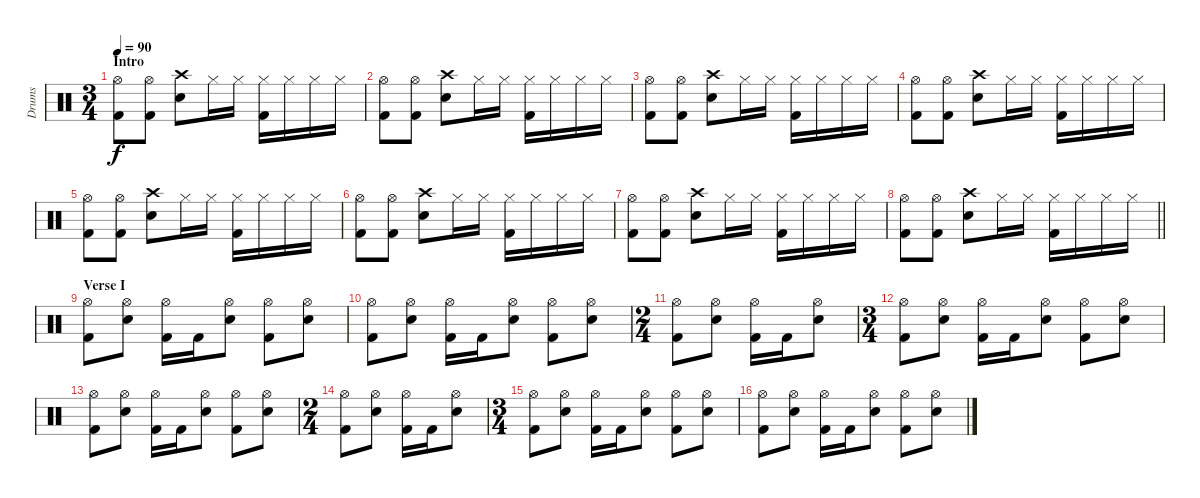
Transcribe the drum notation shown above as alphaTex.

\track ("Drums" "Drums") {instrument percussion}
\staff {score}
\articulation defaults
\ts (3 4)
\section ("" "Intro")
\tempo 90
\clef neutral
\ks c
("Hi-Hat (open)" "Kick (hit) 2").8{dy f} ("Hi-Hat (open)" "Kick (hit) 2").8 ("Crash high (hit)" "Snare (hit) 2").8 "Hi-Hat (closed)".16 "Hi-Hat (closed)".16 ("Hi-Hat (closed)" "Kick (hit) 2").16 "Hi-Hat (closed)".16 "Hi-Hat (closed)".16 "Hi-Hat (closed)".16 |
("Hi-Hat (open)" "Kick (hit) 2").8 ("Hi-Hat (open)" "Kick (hit) 2").8 ("Crash high (hit)" "Snare (hit) 2").8 "Hi-Hat (closed)".16 "Hi-Hat (closed)".16 ("Hi-Hat (closed)" "Kick (hit) 2").16 "Hi-Hat (closed)".16 "Hi-Hat (closed)".16 "Hi-Hat (closed)".16 |
("Hi-Hat (open)" "Kick (hit) 2").8 ("Hi-Hat (open)" "Kick (hit) 2").8 ("Crash high (hit)" "Snare (hit) 2").8 "Hi-Hat (closed)".16 "Hi-Hat (closed)".16 ("Hi-Hat (closed)" "Kick (hit) 2").16 "Hi-Hat (closed)".16 "Hi-Hat (closed)".16 "Hi-Hat (closed)".16 |
("Hi-Hat (open)" "Kick (hit) 2").8 ("Hi-Hat (open)" "Kick (hit) 2").8 ("Crash high (hit)" "Snare (hit) 2").8 "Hi-Hat (closed)".16 "Hi-Hat (closed)".16 ("Hi-Hat (closed)" "Kick (hit) 2").16 "Hi-Hat (closed)".16 "Hi-Hat (closed)".16 "Hi-Hat (closed)".16 |
("Hi-Hat (open)" "Kick (hit) 2").8 ("Hi-Hat (open)" "Kick (hit) 2").8 ("Crash high (hit)" "Snare (hit) 2").8 "Hi-Hat (closed)".16 "Hi-Hat (closed)".16 ("Hi-Hat (closed)" "Kick (hit) 2").16 "Hi-Hat (closed)".16 "Hi-Hat (closed)".16 "Hi-Hat (closed)".16 |
("Hi-Hat (open)" "Kick (hit) 2").8 ("Hi-Hat (open)" "Kick (hit) 2").8 ("Crash high (hit)" "Snare (hit) 2").8 "Hi-Hat (closed)".16 "Hi-Hat (closed)".16 ("Hi-Hat (closed)" "Kick (hit) 2").16 "Hi-Hat (closed)".16 "Hi-Hat (closed)".16 "Hi-Hat (closed)".16 |
("Hi-Hat (open)" "Kick (hit) 2").8 ("Hi-Hat (open)" "Kick (hit) 2").8 ("Crash high (hit)" "Snare (hit) 2").8 "Hi-Hat (closed)".16 "Hi-Hat (closed)".16 ("Hi-Hat (closed)" "Kick (hit) 2").16 "Hi-Hat (closed)".16 "Hi-Hat (closed)".16 "Hi-Hat (closed)".16 |
\barLineRight lightlight
("Hi-Hat (open)" "Kick (hit) 2").8 ("Hi-Hat (open)" "Kick (hit) 2").8 ("Crash high (hit)" "Snare (hit) 2").8 "Hi-Hat (closed)".16 "Hi-Hat (closed)".16 ("Hi-Hat (closed)" "Kick (hit) 2").16 "Hi-Hat (closed)".16 "Hi-Hat (closed)".16 "Hi-Hat (closed)".16 |
\section ("" "Verse I")
("Hi-Hat (open)" "Kick (hit) 2").8 ("Hi-Hat (open)" "Snare (hit) 2").8 ("Hi-Hat (open)" "Kick (hit) 2").16 "Kick (hit) 2".16 ("Hi-Hat (open)" "Snare (hit) 2").8 ("Hi-Hat (open)" "Kick (hit) 2").8 ("Hi-Hat (open)" "Snare (hit) 2").8 |
("Hi-Hat (open)" "Kick (hit) 2").8 ("Hi-Hat (open)" "Snare (hit) 2").8 ("Hi-Hat (open)" "Kick (hit) 2").16 "Kick (hit) 2".16 ("Hi-Hat (open)" "Snare (hit) 2").8 ("Hi-Hat (open)" "Kick (hit) 2").8 ("Hi-Hat (open)" "Snare (hit) 2").8 |
\ts (2 4)
("Hi-Hat (open)" "Kick (hit) 2").8 ("Hi-Hat (open)" "Snare (hit) 2").8 ("Hi-Hat (open)" "Kick (hit) 2").16 "Kick (hit) 2".16 ("Hi-Hat (open)" "Snare (hit) 2").8 |
\ts (3 4)
("Hi-Hat (open)" "Kick (hit) 2").8 ("Hi-Hat (open)" "Snare (hit) 2").8 ("Hi-Hat (open)" "Kick (hit) 2").16 "Kick (hit) 2".16 ("Hi-Hat (open)" "Snare (hit) 2").8 ("Hi-Hat (open)" "Kick (hit) 2").8 ("Hi-Hat (open)" "Snare (hit) 2").8 |
("Hi-Hat (open)" "Kick (hit) 2").8 ("Hi-Hat (open)" "Snare (hit) 2").8 ("Hi-Hat (open)" "Kick (hit) 2").16 "Kick (hit) 2".16 ("Hi-Hat (open)" "Snare (hit) 2").8 ("Hi-Hat (open)" "Kick (hit) 2").8 ("Hi-Hat (open)" "Snare (hit) 2").8 |
\ts (2 4)
("Hi-Hat (open)" "Kick (hit) 2").8 ("Hi-Hat (open)" "Snare (hit) 2").8 ("Hi-Hat (open)" "Kick (hit) 2").16 "Kick (hit) 2".16 ("Hi-Hat (open)" "Snare (hit) 2").8 |
\ts (3 4)
("Hi-Hat (open)" "Kick (hit) 2").8 ("Hi-Hat (open)" "Snare (hit) 2").8 ("Hi-Hat (open)" "Kick (hit) 2").16 "Kick (hit) 2".16 ("Hi-Hat (open)" "Snare (hit) 2").8 ("Hi-Hat (open)" "Kick (hit) 2").8 ("Hi-Hat (open)" "Snare (hit) 2").8 |
("Hi-Hat (open)" "Kick (hit) 2").8 ("Hi-Hat (open)" "Snare (hit) 2").8 ("Hi-Hat (open)" "Kick (hit) 2").16 "Kick (hit) 2".16 ("Hi-Hat (open)" "Snare (hit) 2").8 ("Hi-Hat (open)" "Kick (hit) 2").8 ("Hi-Hat (open)" "Snare (hit) 2").8
